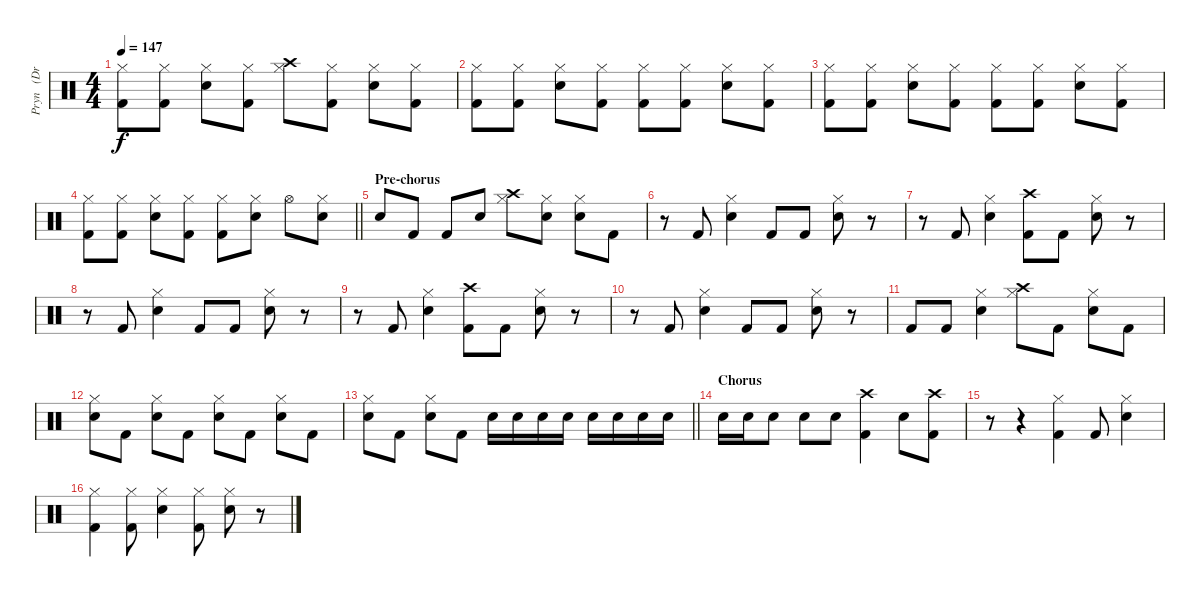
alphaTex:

\track ("Pryn   (Drums)" "Pryn   (Dr") {instrument percussion}
\staff {score}
\articulation defaults
\ts (4 4)
\tempo 147
\clef neutral
\ks c
("Kick (hit) 2" "Hi-Hat (closed)").8{dy f} ("Kick (hit) 2" "Hi-Hat (closed)").8 ("Electric Snare (hit)" "Hi-Hat (closed)").8 ("Kick (hit) 2" "Hi-Hat (closed)").8 ("Crash high (hit)" "Hi-Hat (closed)").8 ("Kick (hit) 2" "Hi-Hat (closed)").8 ("Electric Snare (hit)" "Hi-Hat (closed)").8 ("Kick (hit) 2" "Hi-Hat (closed)").8 |
("Kick (hit) 2" "Hi-Hat (closed)").8 ("Kick (hit) 2" "Hi-Hat (closed)").8 ("Electric Snare (hit)" "Hi-Hat (closed)").8 ("Kick (hit) 2" "Hi-Hat (closed)").8 ("Kick (hit) 2" "Hi-Hat (closed)").8 ("Kick (hit) 2" "Hi-Hat (closed)").8 ("Electric Snare (hit)" "Hi-Hat (closed)").8 ("Kick (hit) 2" "Hi-Hat (closed)").8 |
("Kick (hit) 2" "Hi-Hat (closed)").8 ("Kick (hit) 2" "Hi-Hat (closed)").8 ("Electric Snare (hit)" "Hi-Hat (closed)").8 ("Kick (hit) 2" "Hi-Hat (closed)").8 ("Kick (hit) 2" "Hi-Hat (closed)").8 ("Kick (hit) 2" "Hi-Hat (closed)").8 ("Electric Snare (hit)" "Hi-Hat (closed)").8 ("Kick (hit) 2" "Hi-Hat (closed)").8 |
\barLineRight lightlight
("Kick (hit) 2" "Hi-Hat (closed)").8 ("Kick (hit) 2" "Hi-Hat (closed)").8 ("Electric Snare (hit)" "Hi-Hat (closed)").8 ("Kick (hit) 2" "Hi-Hat (closed)").8 ("Kick (hit) 2" "Hi-Hat (closed)").8 ("Electric Snare (hit)" "Hi-Hat (closed)").8 "Hi-Hat (open)".8 ("Electric Snare (hit)" "Hi-Hat (closed)").8 |
\section ("" "Pre-chorus")
"Electric Snare (hit)".8 "Kick (hit) 2".8 "Kick (hit) 2".8 "Electric Snare (hit)".8 ("Crash high (hit)" "Hi-Hat (closed)").8 ("Electric Snare (hit)" "Hi-Hat (closed)").8 ("Electric Snare (hit)" "Hi-Hat (closed)").8 "Kick (hit) 2".8 |
r.8 "Kick (hit) 2".8 ("Electric Snare (hit)" "Hi-Hat (closed)").4 "Kick (hit) 2".8 "Kick (hit) 2".8 ("Electric Snare (hit)" "Hi-Hat (closed)").8 r.8 |
r.8 "Kick (hit) 2".8 ("Electric Snare (hit)" "Hi-Hat (closed)").4 ("Kick (hit) 2" "Crash high (hit)").8 "Kick (hit) 2".8 ("Electric Snare (hit)" "Hi-Hat (closed)").8 r.8 |
r.8 "Kick (hit) 2".8 ("Electric Snare (hit)" "Hi-Hat (closed)").4 "Kick (hit) 2".8 "Kick (hit) 2".8 ("Electric Snare (hit)" "Hi-Hat (closed)").8 r.8 |
r.8 "Kick (hit) 2".8 ("Electric Snare (hit)" "Hi-Hat (closed)").4 ("Kick (hit) 2" "Crash high (hit)").8 "Kick (hit) 2".8 ("Electric Snare (hit)" "Hi-Hat (closed)").8 r.8 |
r.8 "Kick (hit) 2".8 ("Electric Snare (hit)" "Hi-Hat (closed)").4 "Kick (hit) 2".8 "Kick (hit) 2".8 ("Electric Snare (hit)" "Hi-Hat (closed)").8 r.8 |
"Kick (hit) 2".8 "Kick (hit) 2".8 ("Electric Snare (hit)" "Hi-Hat (closed)").4 ("Crash high (hit)" "Hi-Hat (closed)").8 "Kick (hit) 2".8 ("Electric Snare (hit)" "Hi-Hat (closed)").8 "Kick (hit) 2".8 |
("Electric Snare (hit)" "Hi-Hat (closed)").8 "Kick (hit) 2".8 ("Electric Snare (hit)" "Hi-Hat (closed)").8 "Kick (hit) 2".8 ("Electric Snare (hit)" "Hi-Hat (closed)").8 "Kick (hit) 2".8 ("Electric Snare (hit)" "Hi-Hat (closed)").8 "Kick (hit) 2".8 |
\barLineRight lightlight
("Electric Snare (hit)" "Hi-Hat (closed)").8 "Kick (hit) 2".8 ("Electric Snare (hit)" "Hi-Hat (closed)").8 "Kick (hit) 2".8 "Electric Snare (hit)".16 "Electric Snare (hit)".16 "Electric Snare (hit)".16 "Electric Snare (hit)".16 "Electric Snare (hit)".16 "Electric Snare (hit)".16 "Electric Snare (hit)".16 "Electric Snare (hit)".16 |
\section ("" "Chorus")
"Electric Snare (hit)".16 "Electric Snare (hit)".16 "Electric Snare (hit)".8 "Electric Snare (hit)".8 "Electric Snare (hit)".8 ("Crash high (hit)" "Kick (hit) 2").4 "Electric Snare (hit)".8 ("Kick (hit) 2" "Crash high (hit)").8 |
r.8 r.4 ("Kick (hit) 2" "Hi-Hat (closed)").4 "Kick (hit) 2".8 ("Electric Snare (hit)" "Hi-Hat (closed)").4 |
("Kick (hit) 2" "Hi-Hat (closed)").4 ("Hi-Hat (closed)" "Kick (hit) 2").8 ("Electric Snare (hit)" "Hi-Hat (closed)").4 ("Hi-Hat (closed)" "Kick (hit) 2").8 ("Hi-Hat (closed)" "Electric Snare (hit)").8 r.8
